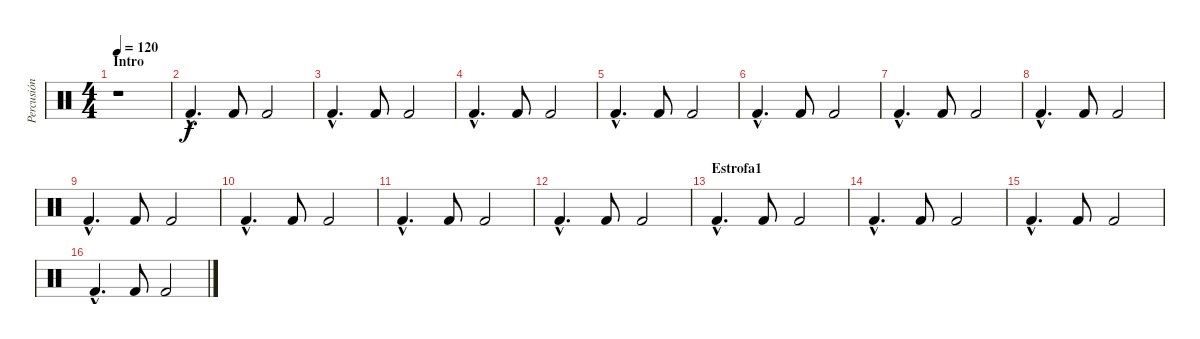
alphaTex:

\track ("Percusión" "Percusión") {instrument percussion}
\staff {score}
\articulation defaults
\ts (4 4)
\section ("" "Intro")
\tempo 120
\clef neutral
\ks c
r.1{dy f} |
"Kick (hit) 2"{hac}.4{d} "Kick (hit) 2".8 "Kick (hit) 2".2 |
"Kick (hit) 2"{hac}.4{d} "Kick (hit) 2".8 "Kick (hit) 2".2 |
"Kick (hit) 2"{hac}.4{d} "Kick (hit) 2".8 "Kick (hit) 2".2 |
"Kick (hit) 2"{hac}.4{d} "Kick (hit) 2".8 "Kick (hit) 2".2 |
"Kick (hit) 2"{hac}.4{d} "Kick (hit) 2".8 "Kick (hit) 2".2 |
"Kick (hit) 2"{hac}.4{d} "Kick (hit) 2".8 "Kick (hit) 2".2 |
"Kick (hit) 2"{hac}.4{d} "Kick (hit) 2".8 "Kick (hit) 2".2 |
"Kick (hit) 2"{hac}.4{d} "Kick (hit) 2".8 "Kick (hit) 2".2 |
"Kick (hit) 2"{hac}.4{d} "Kick (hit) 2".8 "Kick (hit) 2".2 |
"Kick (hit) 2"{hac}.4{d} "Kick (hit) 2".8 "Kick (hit) 2".2 |
"Kick (hit) 2"{hac}.4{d} "Kick (hit) 2".8 "Kick (hit) 2".2 |
\section ("" "Estrofa1")
"Kick (hit) 2"{hac}.4{d} "Kick (hit) 2".8 "Kick (hit) 2".2 |
"Kick (hit) 2"{hac}.4{d} "Kick (hit) 2".8 "Kick (hit) 2".2 |
"Kick (hit) 2"{hac}.4{d} "Kick (hit) 2".8 "Kick (hit) 2".2 |
"Kick (hit) 2"{hac}.4{d} "Kick (hit) 2".8 "Kick (hit) 2".2
